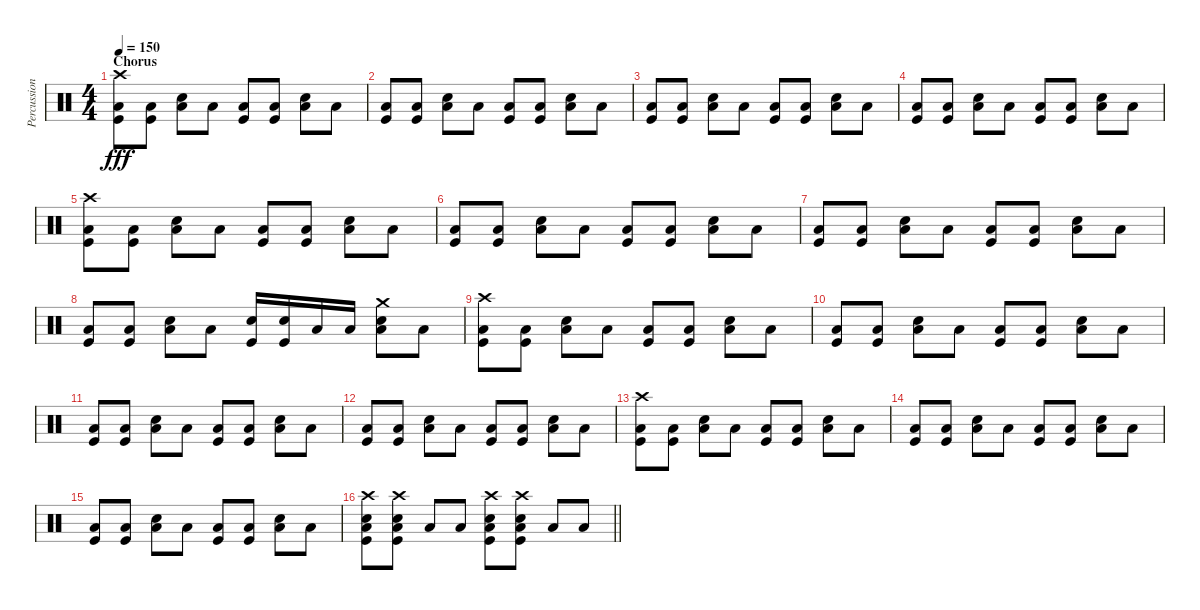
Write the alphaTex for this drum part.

\track ("Percussion" "Percussion") {instrument percussion}
\staff {score}
\articulation defaults
\ts (4 4)
\section ("" "Chorus")
\tempo 150
\clef neutral
\ks c
("Crash high (hit)" "Low Floor Tom (hit)" "Kick (hit)").8{dy fff} ("Low Floor Tom (hit)" "Kick (hit)").8 ("Low Floor Tom (hit)" "Snare (hit) 2").8 "Low Floor Tom (hit)".8 ("Low Floor Tom (hit)" "Kick (hit)").8 ("Low Floor Tom (hit)" "Kick (hit)").8 ("Low Floor Tom (hit)" "Snare (hit) 2").8 "Low Floor Tom (hit)".8 |
("Low Floor Tom (hit)" "Kick (hit)").8 ("Low Floor Tom (hit)" "Kick (hit)").8 ("Low Floor Tom (hit)" "Snare (hit) 2").8 "Low Floor Tom (hit)".8 ("Low Floor Tom (hit)" "Kick (hit)").8 ("Low Floor Tom (hit)" "Kick (hit)").8 ("Low Floor Tom (hit)" "Snare (hit) 2").8 "Low Floor Tom (hit)".8 |
("Low Floor Tom (hit)" "Kick (hit)").8 ("Low Floor Tom (hit)" "Kick (hit)").8 ("Low Floor Tom (hit)" "Snare (hit) 2").8 "Low Floor Tom (hit)".8 ("Low Floor Tom (hit)" "Kick (hit)").8 ("Low Floor Tom (hit)" "Kick (hit)").8 ("Low Floor Tom (hit)" "Snare (hit) 2").8 "Low Floor Tom (hit)".8 |
("Low Floor Tom (hit)" "Kick (hit)").8 ("Low Floor Tom (hit)" "Kick (hit)").8 ("Low Floor Tom (hit)" "Snare (hit) 2").8 "Low Floor Tom (hit)".8 ("Low Floor Tom (hit)" "Kick (hit)").8 ("Low Floor Tom (hit)" "Kick (hit)").8 ("Low Floor Tom (hit)" "Snare (hit) 2").8 "Low Floor Tom (hit)".8 |
("Crash high (hit)" "Low Floor Tom (hit)" "Kick (hit)").8 ("Low Floor Tom (hit)" "Kick (hit)").8 ("Low Floor Tom (hit)" "Snare (hit) 2").8 "Low Floor Tom (hit)".8 ("Low Floor Tom (hit)" "Kick (hit)").8 ("Low Floor Tom (hit)" "Kick (hit)").8 ("Low Floor Tom (hit)" "Snare (hit) 2").8 "Low Floor Tom (hit)".8 |
("Low Floor Tom (hit)" "Kick (hit)").8 ("Low Floor Tom (hit)" "Kick (hit)").8 ("Low Floor Tom (hit)" "Snare (hit) 2").8 "Low Floor Tom (hit)".8 ("Low Floor Tom (hit)" "Kick (hit)").8 ("Low Floor Tom (hit)" "Kick (hit)").8 ("Low Floor Tom (hit)" "Snare (hit) 2").8 "Low Floor Tom (hit)".8 |
("Low Floor Tom (hit)" "Kick (hit)").8 ("Low Floor Tom (hit)" "Kick (hit)").8 ("Low Floor Tom (hit)" "Snare (hit) 2").8 "Low Floor Tom (hit)".8 ("Low Floor Tom (hit)" "Kick (hit)").8 ("Low Floor Tom (hit)" "Kick (hit)").8 ("Low Floor Tom (hit)" "Snare (hit) 2").8 "Low Floor Tom (hit)".8 |
("Low Floor Tom (hit)" "Kick (hit)").8 ("Low Floor Tom (hit)" "Kick (hit)").8 ("Low Floor Tom (hit)" "Snare (hit) 2").8 "Low Floor Tom (hit)".8 ("Snare (hit) 2" "Kick (hit)").16 ("Snare (hit) 2" "Kick (hit)").16 "Low Tom (hit)".16 "Low Tom (hit)".16 ("Crash medium (hit)" "Low Floor Tom (hit)" "Snare (hit) 2").8 "Low Floor Tom (hit)".8 |
("Crash high (hit)" "Low Floor Tom (hit)" "Kick (hit)").8 ("Low Floor Tom (hit)" "Kick (hit)").8 ("Low Floor Tom (hit)" "Snare (hit) 2").8 "Low Floor Tom (hit)".8 ("Low Floor Tom (hit)" "Kick (hit)").8 ("Low Floor Tom (hit)" "Kick (hit)").8 ("Low Floor Tom (hit)" "Snare (hit) 2").8 "Low Floor Tom (hit)".8 |
("Low Floor Tom (hit)" "Kick (hit)").8 ("Low Floor Tom (hit)" "Kick (hit)").8 ("Low Floor Tom (hit)" "Snare (hit) 2").8 "Low Floor Tom (hit)".8 ("Low Floor Tom (hit)" "Kick (hit)").8 ("Low Floor Tom (hit)" "Kick (hit)").8 ("Low Floor Tom (hit)" "Snare (hit) 2").8 "Low Floor Tom (hit)".8 |
("Low Floor Tom (hit)" "Kick (hit)").8 ("Low Floor Tom (hit)" "Kick (hit)").8 ("Low Floor Tom (hit)" "Snare (hit) 2").8 "Low Floor Tom (hit)".8 ("Low Floor Tom (hit)" "Kick (hit)").8 ("Low Floor Tom (hit)" "Kick (hit)").8 ("Low Floor Tom (hit)" "Snare (hit) 2").8 "Low Floor Tom (hit)".8 |
("Low Floor Tom (hit)" "Kick (hit)").8 ("Low Floor Tom (hit)" "Kick (hit)").8 ("Low Floor Tom (hit)" "Snare (hit) 2").8 "Low Floor Tom (hit)".8 ("Low Floor Tom (hit)" "Kick (hit)").8 ("Low Floor Tom (hit)" "Kick (hit)").8 ("Low Floor Tom (hit)" "Snare (hit) 2").8 "Low Floor Tom (hit)".8 |
("Crash high (hit)" "Low Floor Tom (hit)" "Kick (hit)").8 ("Low Floor Tom (hit)" "Kick (hit)").8 ("Low Floor Tom (hit)" "Snare (hit) 2").8 "Low Floor Tom (hit)".8 ("Low Floor Tom (hit)" "Kick (hit)").8 ("Low Floor Tom (hit)" "Kick (hit)").8 ("Low Floor Tom (hit)" "Snare (hit) 2").8 "Low Floor Tom (hit)".8 |
("Low Floor Tom (hit)" "Kick (hit)").8 ("Low Floor Tom (hit)" "Kick (hit)").8 ("Low Floor Tom (hit)" "Snare (hit) 2").8 "Low Floor Tom (hit)".8 ("Low Floor Tom (hit)" "Kick (hit)").8 ("Low Floor Tom (hit)" "Kick (hit)").8 ("Low Floor Tom (hit)" "Snare (hit) 2").8 "Low Floor Tom (hit)".8 |
("Low Floor Tom (hit)" "Kick (hit)").8 ("Low Floor Tom (hit)" "Kick (hit)").8 ("Low Floor Tom (hit)" "Snare (hit) 2").8 "Low Floor Tom (hit)".8 ("Low Floor Tom (hit)" "Kick (hit)").8 ("Low Floor Tom (hit)" "Kick (hit)").8 ("Low Floor Tom (hit)" "Snare (hit) 2").8 "Low Floor Tom (hit)".8 |
\barLineRight lightlight
("Crash high (hit)" "Low Floor Tom (hit)" "Snare (hit) 2" "Kick (hit)").8 ("Crash high (hit)" "Low Floor Tom (hit)" "Snare (hit) 2" "Kick (hit)").8 "Low Floor Tom (hit)".8 "Low Floor Tom (hit)".8 ("Crash high (hit)" "Low Floor Tom (hit)" "Snare (hit) 2" "Kick (hit)").8 ("Crash high (hit)" "Low Floor Tom (hit)" "Snare (hit) 2" "Kick (hit)").8 "Low Floor Tom (hit)".8 "Low Floor Tom (hit)".8
